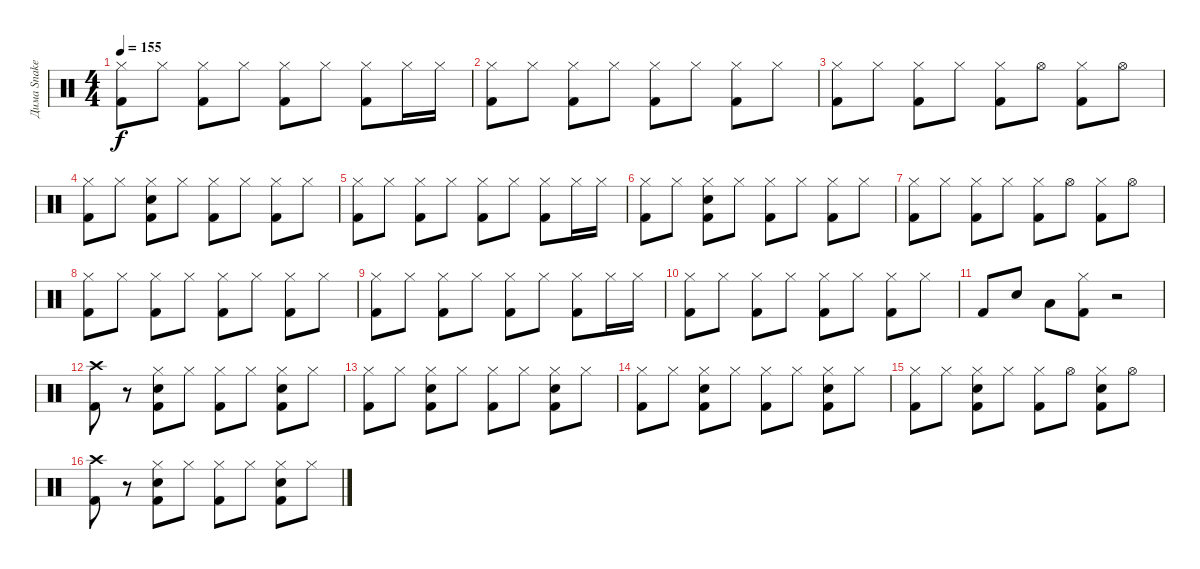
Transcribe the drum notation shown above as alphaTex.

\track ("Дима Snake Хакимов" "Дима Snake") {instrument percussion}
\staff {score}
\articulation defaults
\ts (4 4)
\tempo 155
\clef neutral
\ks c
("Hi-Hat (closed)" "Kick (hit) 2").8{dy f} "Hi-Hat (closed)".8 ("Hi-Hat (closed)" "Kick (hit) 2").8 "Hi-Hat (closed)".8 ("Hi-Hat (closed)" "Kick (hit) 2").8 "Hi-Hat (closed)".8 ("Hi-Hat (closed)" "Kick (hit) 2").8 "Hi-Hat (closed)".16 "Hi-Hat (closed)".16 |
("Hi-Hat (closed)" "Kick (hit) 2").8 "Hi-Hat (closed)".8 ("Hi-Hat (closed)" "Kick (hit) 2").8 "Hi-Hat (closed)".8 ("Hi-Hat (closed)" "Kick (hit) 2").8 "Hi-Hat (closed)".8 ("Hi-Hat (closed)" "Kick (hit) 2").8 "Hi-Hat (closed)".8 |
("Hi-Hat (closed)" "Kick (hit) 2").8 "Hi-Hat (closed)".8 ("Hi-Hat (closed)" "Kick (hit) 2").8 "Hi-Hat (closed)".8 ("Hi-Hat (closed)" "Kick (hit) 2").8 "Hi-Hat (open)".8 ("Hi-Hat (closed)" "Kick (hit) 2").8 "Hi-Hat (open)".8 |
("Hi-Hat (closed)" "Kick (hit) 2").8 "Hi-Hat (closed)".8 ("Hi-Hat (closed)" "Snare (hit) 2" "Kick (hit) 2").8 "Hi-Hat (closed)".8 ("Hi-Hat (closed)" "Kick (hit) 2").8 "Hi-Hat (closed)".8 ("Hi-Hat (closed)" "Kick (hit) 2").8 "Hi-Hat (closed)".8 |
("Hi-Hat (closed)" "Kick (hit) 2").8 "Hi-Hat (closed)".8 ("Hi-Hat (closed)" "Kick (hit) 2").8 "Hi-Hat (closed)".8 ("Hi-Hat (closed)" "Kick (hit) 2").8 "Hi-Hat (closed)".8 ("Hi-Hat (closed)" "Kick (hit) 2").8 "Hi-Hat (closed)".16 "Hi-Hat (closed)".16 |
("Hi-Hat (closed)" "Kick (hit) 2").8 "Hi-Hat (closed)".8 ("Hi-Hat (closed)" "Snare (hit) 2" "Kick (hit) 2").8 "Hi-Hat (closed)".8 ("Hi-Hat (closed)" "Kick (hit) 2").8 "Hi-Hat (closed)".8 ("Hi-Hat (closed)" "Kick (hit) 2").8 "Hi-Hat (closed)".8 |
("Hi-Hat (closed)" "Kick (hit) 2").8 "Hi-Hat (closed)".8 ("Hi-Hat (closed)" "Kick (hit) 2").8 "Hi-Hat (closed)".8 ("Hi-Hat (closed)" "Kick (hit) 2").8 "Hi-Hat (open)".8 ("Hi-Hat (closed)" "Kick (hit) 2").8 "Hi-Hat (open)".8 |
("Hi-Hat (closed)" "Kick (hit) 2").8 "Hi-Hat (closed)".8 ("Hi-Hat (closed)" "Kick (hit) 2").8 "Hi-Hat (closed)".8 ("Hi-Hat (closed)" "Kick (hit) 2").8 "Hi-Hat (closed)".8 ("Hi-Hat (closed)" "Kick (hit) 2").8 "Hi-Hat (closed)".8 |
("Hi-Hat (closed)" "Kick (hit) 2").8 "Hi-Hat (closed)".8 ("Hi-Hat (closed)" "Kick (hit) 2").8 "Hi-Hat (closed)".8 ("Hi-Hat (closed)" "Kick (hit) 2").8 "Hi-Hat (closed)".8 ("Hi-Hat (closed)" "Kick (hit) 2").8 "Hi-Hat (closed)".16 "Hi-Hat (closed)".16 |
("Hi-Hat (closed)" "Kick (hit) 2").8 "Hi-Hat (closed)".8 ("Hi-Hat (closed)" "Kick (hit) 2").8 "Hi-Hat (closed)".8 ("Hi-Hat (closed)" "Kick (hit) 2").8 "Hi-Hat (closed)".8 ("Hi-Hat (closed)" "Kick (hit) 2").8 "Hi-Hat (closed)".8 |
"Kick (hit) 2".8 "Snare (hit) 2".8 "Low Tom (hit)".8 ("Hi-Hat (closed)" "Kick (hit) 2").8 r.2 |
("Crash high (hit)" "Kick (hit) 2").8 r.8 ("Hi-Hat (closed)" "Snare (hit) 2" "Kick (hit) 2").8 "Hi-Hat (closed)".8 ("Hi-Hat (closed)" "Kick (hit) 2").8 "Hi-Hat (closed)".8 ("Hi-Hat (closed)" "Snare (hit) 2" "Kick (hit) 2").8 "Hi-Hat (closed)".8 |
("Hi-Hat (closed)" "Kick (hit) 2").8 "Hi-Hat (closed)".8 ("Hi-Hat (closed)" "Snare (hit) 2" "Kick (hit) 2").8 "Hi-Hat (closed)".8 ("Hi-Hat (closed)" "Kick (hit) 2").8 "Hi-Hat (closed)".8 ("Hi-Hat (closed)" "Snare (hit) 2" "Kick (hit) 2").8 "Hi-Hat (closed)".8 |
("Hi-Hat (closed)" "Kick (hit) 2").8 "Hi-Hat (closed)".8 ("Hi-Hat (closed)" "Snare (hit) 2" "Kick (hit) 2").8 "Hi-Hat (closed)".8 ("Hi-Hat (closed)" "Kick (hit) 2").8 "Hi-Hat (closed)".8 ("Hi-Hat (closed)" "Snare (hit) 2" "Kick (hit) 2").8 "Hi-Hat (closed)".8 |
("Hi-Hat (closed)" "Kick (hit) 2").8 "Hi-Hat (closed)".8 ("Hi-Hat (closed)" "Snare (hit) 2" "Kick (hit) 2").8 "Hi-Hat (closed)".8 ("Hi-Hat (closed)" "Kick (hit) 2").8 "Hi-Hat (open)".8 ("Hi-Hat (closed)" "Snare (hit) 2" "Kick (hit) 2").8 "Hi-Hat (open)".8 |
("Crash high (hit)" "Kick (hit) 2").8 r.8 ("Hi-Hat (closed)" "Snare (hit) 2" "Kick (hit) 2").8 "Hi-Hat (closed)".8 ("Hi-Hat (closed)" "Kick (hit) 2").8 "Hi-Hat (closed)".8 ("Hi-Hat (closed)" "Snare (hit) 2" "Kick (hit) 2").8 "Hi-Hat (closed)".8
